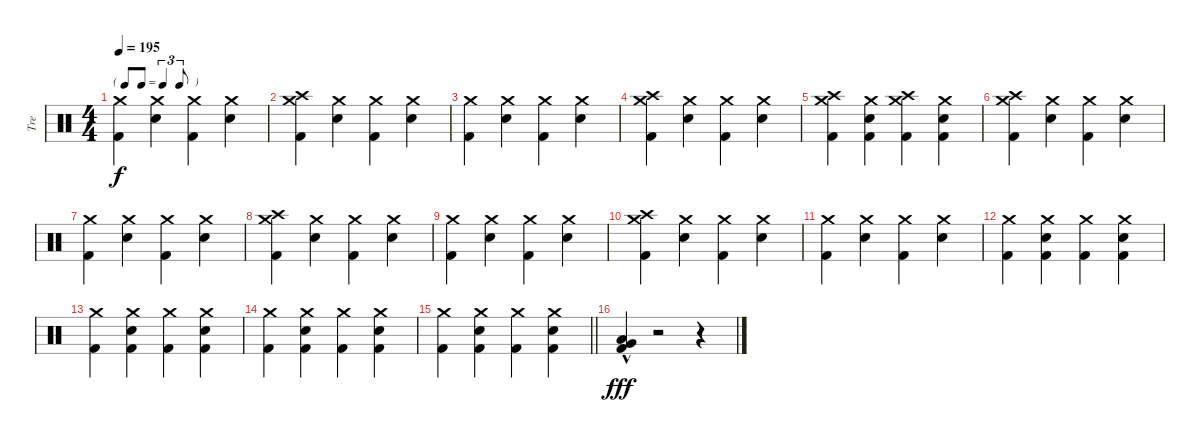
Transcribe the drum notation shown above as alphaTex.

\track ("Tre" "Tre") {instrument percussion}
\staff {score}
\articulation defaults
\ts (4 4)
\tf triplet8th
\tempo 195
\clef neutral
\ks c
("Crash medium (hit)" "Kick (hit) 2").4{dy f} ("Crash medium (hit)" "Snare (hit) 2").4 ("Crash medium (hit)" "Kick (hit) 2").4 ("Crash medium (hit)" "Snare (hit) 2").4 |
("Crash medium (hit)" "Crash high (hit)" "Kick (hit) 2").4 ("Crash medium (hit)" "Snare (hit) 2").4 ("Crash medium (hit)" "Kick (hit) 2").4 ("Crash medium (hit)" "Snare (hit) 2").4 |
("Crash medium (hit)" "Kick (hit) 2").4 ("Crash medium (hit)" "Snare (hit) 2").4 ("Crash medium (hit)" "Kick (hit) 2").4 ("Crash medium (hit)" "Snare (hit) 2").4 |
("Crash medium (hit)" "Crash high (hit)" "Kick (hit) 2").4 ("Crash medium (hit)" "Snare (hit) 2").4 ("Crash medium (hit)" "Kick (hit) 2").4 ("Crash medium (hit)" "Snare (hit) 2").4 |
("Crash medium (hit)" "Crash high (hit)" "Kick (hit) 2").4 ("Crash medium (hit)" "Snare (hit) 2" "Kick (hit) 2").4 ("Crash medium (hit)" "Crash high (hit)" "Kick (hit) 2").4 ("Crash medium (hit)" "Snare (hit) 2" "Kick (hit) 2").4 |
("Crash medium (hit)" "Crash high (hit)" "Kick (hit) 2").4 ("Crash medium (hit)" "Snare (hit) 2").4 ("Crash medium (hit)" "Kick (hit) 2").4 ("Crash medium (hit)" "Snare (hit) 2").4 |
("Crash medium (hit)" "Kick (hit) 2").4 ("Crash medium (hit)" "Snare (hit) 2").4 ("Crash medium (hit)" "Kick (hit) 2").4 ("Crash medium (hit)" "Snare (hit) 2").4 |
("Crash medium (hit)" "Crash high (hit)" "Kick (hit) 2").4 ("Crash medium (hit)" "Snare (hit) 2").4 ("Crash medium (hit)" "Kick (hit) 2").4 ("Crash medium (hit)" "Snare (hit) 2").4 |
("Crash medium (hit)" "Kick (hit) 2").4 ("Crash medium (hit)" "Snare (hit) 2").4 ("Crash medium (hit)" "Kick (hit) 2").4 ("Crash medium (hit)" "Snare (hit) 2").4 |
("Crash medium (hit)" "Crash high (hit)" "Kick (hit) 2").4 ("Crash medium (hit)" "Snare (hit) 2").4 ("Crash medium (hit)" "Kick (hit) 2").4 ("Crash medium (hit)" "Snare (hit) 2").4 |
("Crash medium (hit)" "Kick (hit) 2").4 ("Crash medium (hit)" "Snare (hit) 2").4 ("Crash medium (hit)" "Kick (hit) 2").4 ("Crash medium (hit)" "Snare (hit) 2").4 |
("Crash medium (hit)" "Kick (hit) 2").4 ("Crash medium (hit)" "Snare (hit) 2" "Kick (hit) 2").4 ("Crash medium (hit)" "Kick (hit) 2").4 ("Crash medium (hit)" "Snare (hit) 2" "Kick (hit) 2").4 |
("Crash medium (hit)" "Kick (hit) 2").4 ("Crash medium (hit)" "Snare (hit) 2" "Kick (hit) 2").4 ("Crash medium (hit)" "Kick (hit) 2").4 ("Crash medium (hit)" "Snare (hit) 2" "Kick (hit) 2").4 |
("Crash medium (hit)" "Kick (hit) 2").4 ("Crash medium (hit)" "Snare (hit) 2" "Kick (hit) 2").4 ("Crash medium (hit)" "Kick (hit) 2").4 ("Crash medium (hit)" "Snare (hit) 2" "Kick (hit) 2").4 |
\barLineRight lightlight
("Crash medium (hit)" "Kick (hit) 2").4 ("Crash medium (hit)" "Snare (hit) 2" "Kick (hit) 2").4 ("Crash medium (hit)" "Kick (hit) 2").4 ("Crash medium (hit)" "Snare (hit) 2" "Kick (hit) 2").4 |
("Very Low Tom (hit)"{hac} "Low Floor Tom (hit)"{hac} "Kick (hit) 2"{hac}).4{dy fff} r.2 r.4
